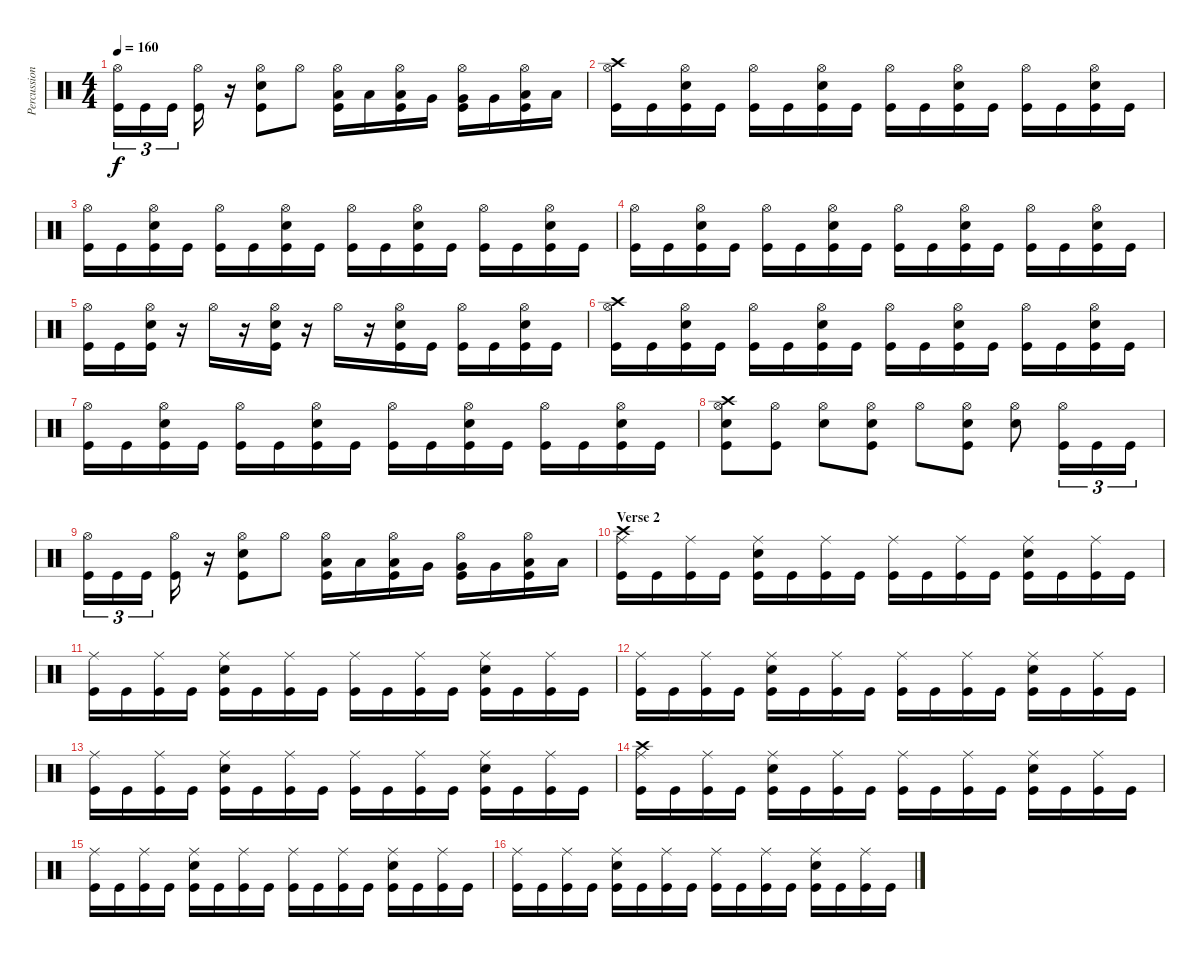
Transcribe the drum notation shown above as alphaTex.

\track ("Percussion" "Percussion") {instrument percussion}
\staff {score}
\articulation defaults
\ts (4 4)
\tempo 160
\clef neutral
\ks c
("Hi-Hat (open)" "Kick (hit)").16{tu (3 2) dy f} "Kick (hit)".16{tu (3 2)} "Kick (hit)".16{tu (3 2)} ("Hi-Hat (open)" "Kick (hit)").16 r.16 ("Hi-Hat (open)" "Electric Snare (hit)" "Kick (hit)").8 "Hi-Hat (open)".8 ("Hi-Hat (open)" "Low Tom (hit)" "Kick (hit)").16 "Low Tom (hit)".16 ("Hi-Hat (open)" "Low Tom (hit)" "Kick (hit)").16 "Very Low Tom (hit)".16 ("Hi-Hat (open)" "Very Low Tom (hit)" "Kick (hit)").16 "Very Low Tom (hit)".16 ("Hi-Hat (open)" "Low Floor Tom (hit)" "Kick (hit)").16 "Low Floor Tom (hit)".16 |
("Crash high (hit)" "Hi-Hat (open)" "Kick (hit)").16 "Kick (hit)".16 ("Electric Snare (hit)" "Hi-Hat (open)" "Kick (hit)").16 "Kick (hit)".16 ("Hi-Hat (open)" "Kick (hit)").16 "Kick (hit)".16 ("Electric Snare (hit)" "Hi-Hat (open)" "Kick (hit)").16 "Kick (hit)".16 ("Hi-Hat (open)" "Kick (hit)").16 "Kick (hit)".16 ("Electric Snare (hit)" "Hi-Hat (open)" "Kick (hit)").16 "Kick (hit)".16 ("Hi-Hat (open)" "Kick (hit)").16 "Kick (hit)".16 ("Electric Snare (hit)" "Hi-Hat (open)" "Kick (hit)").16 "Kick (hit)".16 |
("Hi-Hat (open)" "Kick (hit)").16 "Kick (hit)".16 ("Electric Snare (hit)" "Hi-Hat (open)" "Kick (hit)").16 "Kick (hit)".16 ("Hi-Hat (open)" "Kick (hit)").16 "Kick (hit)".16 ("Electric Snare (hit)" "Hi-Hat (open)" "Kick (hit)").16 "Kick (hit)".16 ("Hi-Hat (open)" "Kick (hit)").16 "Kick (hit)".16 ("Electric Snare (hit)" "Hi-Hat (open)" "Kick (hit)").16 "Kick (hit)".16 ("Hi-Hat (open)" "Kick (hit)").16 "Kick (hit)".16 ("Electric Snare (hit)" "Hi-Hat (open)" "Kick (hit)").16 "Kick (hit)".16 |
("Hi-Hat (open)" "Kick (hit)").16 "Kick (hit)".16 ("Electric Snare (hit)" "Hi-Hat (open)" "Kick (hit)").16 "Kick (hit)".16 ("Hi-Hat (open)" "Kick (hit)").16 "Kick (hit)".16 ("Electric Snare (hit)" "Hi-Hat (open)" "Kick (hit)").16 "Kick (hit)".16 ("Hi-Hat (open)" "Kick (hit)").16 "Kick (hit)".16 ("Electric Snare (hit)" "Hi-Hat (open)" "Kick (hit)").16 "Kick (hit)".16 ("Hi-Hat (open)" "Kick (hit)").16 "Kick (hit)".16 ("Electric Snare (hit)" "Hi-Hat (open)" "Kick (hit)").16 "Kick (hit)".16 |
("Hi-Hat (open)" "Kick (hit)").16 "Kick (hit)".16 ("Electric Snare (hit)" "Hi-Hat (open)" "Kick (hit)").16 r.16 "Hi-Hat (open)".16 r.16 ("Electric Snare (hit)" "Hi-Hat (open)" "Kick (hit)").16 r.16 "Hi-Hat (open)".16 r.16 ("Electric Snare (hit)" "Hi-Hat (open)" "Kick (hit)").16 "Kick (hit)".16 ("Hi-Hat (open)" "Kick (hit)").16 "Kick (hit)".16 ("Electric Snare (hit)" "Hi-Hat (open)" "Kick (hit)").16 "Kick (hit)".16 |
("Crash high (hit)" "Hi-Hat (open)" "Kick (hit)").16 "Kick (hit)".16 ("Electric Snare (hit)" "Hi-Hat (open)" "Kick (hit)").16 "Kick (hit)".16 ("Hi-Hat (open)" "Kick (hit)").16 "Kick (hit)".16 ("Electric Snare (hit)" "Hi-Hat (open)" "Kick (hit)").16 "Kick (hit)".16 ("Hi-Hat (open)" "Kick (hit)").16 "Kick (hit)".16 ("Electric Snare (hit)" "Hi-Hat (open)" "Kick (hit)").16 "Kick (hit)".16 ("Hi-Hat (open)" "Kick (hit)").16 "Kick (hit)".16 ("Electric Snare (hit)" "Hi-Hat (open)" "Kick (hit)").16 "Kick (hit)".16 |
("Hi-Hat (open)" "Kick (hit)").16 "Kick (hit)".16 ("Electric Snare (hit)" "Hi-Hat (open)" "Kick (hit)").16 "Kick (hit)".16 ("Hi-Hat (open)" "Kick (hit)").16 "Kick (hit)".16 ("Electric Snare (hit)" "Hi-Hat (open)" "Kick (hit)").16 "Kick (hit)".16 ("Hi-Hat (open)" "Kick (hit)").16 "Kick (hit)".16 ("Electric Snare (hit)" "Hi-Hat (open)" "Kick (hit)").16 "Kick (hit)".16 ("Hi-Hat (open)" "Kick (hit)").16 "Kick (hit)".16 ("Electric Snare (hit)" "Hi-Hat (open)" "Kick (hit)").16 "Kick (hit)".16 |
("Crash high (hit)" "Hi-Hat (open)" "Electric Snare (hit)" "Kick (hit)").8 ("Hi-Hat (open)" "Kick (hit)").8 ("Hi-Hat (open)" "Electric Snare (hit)").8 ("Hi-Hat (open)" "Electric Snare (hit)" "Kick (hit)").8 "Hi-Hat (open)".8 ("Hi-Hat (open)" "Electric Snare (hit)" "Kick (hit)").8 ("Hi-Hat (open)" "Electric Snare (hit)").8 ("Hi-Hat (open)" "Kick (hit)").16{tu (3 2)} "Kick (hit)".16{tu (3 2)} "Kick (hit)".16{tu (3 2)} |
("Hi-Hat (open)" "Kick (hit)").16{tu (3 2)} "Kick (hit)".16{tu (3 2)} "Kick (hit)".16{tu (3 2)} ("Hi-Hat (open)" "Kick (hit)").16 r.16 ("Hi-Hat (open)" "Electric Snare (hit)" "Kick (hit)").8 "Hi-Hat (open)".8 ("Hi-Hat (open)" "Low Tom (hit)" "Kick (hit)").16 "Low Tom (hit)".16 ("Hi-Hat (open)" "Low Tom (hit)" "Kick (hit)").16 "Very Low Tom (hit)".16 ("Hi-Hat (open)" "Very Low Tom (hit)" "Kick (hit)").16 "Very Low Tom (hit)".16 ("Hi-Hat (open)" "Low Floor Tom (hit)" "Kick (hit)").16 "Low Floor Tom (hit)".16 |
\section ("" "Verse 2")
("Crash high (hit)" "Ride (middle)" "Kick (hit)").16 "Kick (hit)".16 ("Ride (middle)" "Kick (hit)").16 "Kick (hit)".16 ("Electric Snare (hit)" "Ride (middle)" "Kick (hit)").16 "Kick (hit)".16 ("Ride (middle)" "Kick (hit)").16 "Kick (hit)".16 ("Ride (middle)" "Kick (hit)").16 "Kick (hit)".16 ("Ride (middle)" "Kick (hit)").16 "Kick (hit)".16 ("Electric Snare (hit)" "Ride (middle)" "Kick (hit)").16 "Kick (hit)".16 ("Ride (middle)" "Kick (hit)").16 "Kick (hit)".16 |
("Ride (middle)" "Kick (hit)").16 "Kick (hit)".16 ("Ride (middle)" "Kick (hit)").16 "Kick (hit)".16 ("Electric Snare (hit)" "Ride (middle)" "Kick (hit)").16 "Kick (hit)".16 ("Ride (middle)" "Kick (hit)").16 "Kick (hit)".16 ("Ride (middle)" "Kick (hit)").16 "Kick (hit)".16 ("Ride (middle)" "Kick (hit)").16 "Kick (hit)".16 ("Electric Snare (hit)" "Ride (middle)" "Kick (hit)").16 "Kick (hit)".16 ("Ride (middle)" "Kick (hit)").16 "Kick (hit)".16 |
("Ride (middle)" "Kick (hit)").16 "Kick (hit)".16 ("Ride (middle)" "Kick (hit)").16 "Kick (hit)".16 ("Electric Snare (hit)" "Ride (middle)" "Kick (hit)").16 "Kick (hit)".16 ("Ride (middle)" "Kick (hit)").16 "Kick (hit)".16 ("Ride (middle)" "Kick (hit)").16 "Kick (hit)".16 ("Ride (middle)" "Kick (hit)").16 "Kick (hit)".16 ("Electric Snare (hit)" "Ride (middle)" "Kick (hit)").16 "Kick (hit)".16 ("Ride (middle)" "Kick (hit)").16 "Kick (hit)".16 |
("Ride (middle)" "Kick (hit)").16 "Kick (hit)".16 ("Ride (middle)" "Kick (hit)").16 "Kick (hit)".16 ("Electric Snare (hit)" "Ride (middle)" "Kick (hit)").16 "Kick (hit)".16 ("Ride (middle)" "Kick (hit)").16 "Kick (hit)".16 ("Ride (middle)" "Kick (hit)").16 "Kick (hit)".16 ("Ride (middle)" "Kick (hit)").16 "Kick (hit)".16 ("Electric Snare (hit)" "Ride (middle)" "Kick (hit)").16 "Kick (hit)".16 ("Ride (middle)" "Kick (hit)").16 "Kick (hit)".16 |
("Crash high (hit)" "Ride (middle)" "Kick (hit)").16 "Kick (hit)".16 ("Ride (middle)" "Kick (hit)").16 "Kick (hit)".16 ("Electric Snare (hit)" "Ride (middle)" "Kick (hit)").16 "Kick (hit)".16 ("Ride (middle)" "Kick (hit)").16 "Kick (hit)".16 ("Ride (middle)" "Kick (hit)").16 "Kick (hit)".16 ("Ride (middle)" "Kick (hit)").16 "Kick (hit)".16 ("Electric Snare (hit)" "Ride (middle)" "Kick (hit)").16 "Kick (hit)".16 ("Ride (middle)" "Kick (hit)").16 "Kick (hit)".16 |
("Ride (middle)" "Kick (hit)").16 "Kick (hit)".16 ("Ride (middle)" "Kick (hit)").16 "Kick (hit)".16 ("Electric Snare (hit)" "Ride (middle)" "Kick (hit)").16 "Kick (hit)".16 ("Ride (middle)" "Kick (hit)").16 "Kick (hit)".16 ("Ride (middle)" "Kick (hit)").16 "Kick (hit)".16 ("Ride (middle)" "Kick (hit)").16 "Kick (hit)".16 ("Electric Snare (hit)" "Ride (middle)" "Kick (hit)").16 "Kick (hit)".16 ("Ride (middle)" "Kick (hit)").16 "Kick (hit)".16 |
("Ride (middle)" "Kick (hit)").16 "Kick (hit)".16 ("Ride (middle)" "Kick (hit)").16 "Kick (hit)".16 ("Electric Snare (hit)" "Ride (middle)" "Kick (hit)").16 "Kick (hit)".16 ("Ride (middle)" "Kick (hit)").16 "Kick (hit)".16 ("Ride (middle)" "Kick (hit)").16 "Kick (hit)".16 ("Ride (middle)" "Kick (hit)").16 "Kick (hit)".16 ("Electric Snare (hit)" "Ride (middle)" "Kick (hit)").16 "Kick (hit)".16 ("Ride (middle)" "Kick (hit)").16 "Kick (hit)".16
